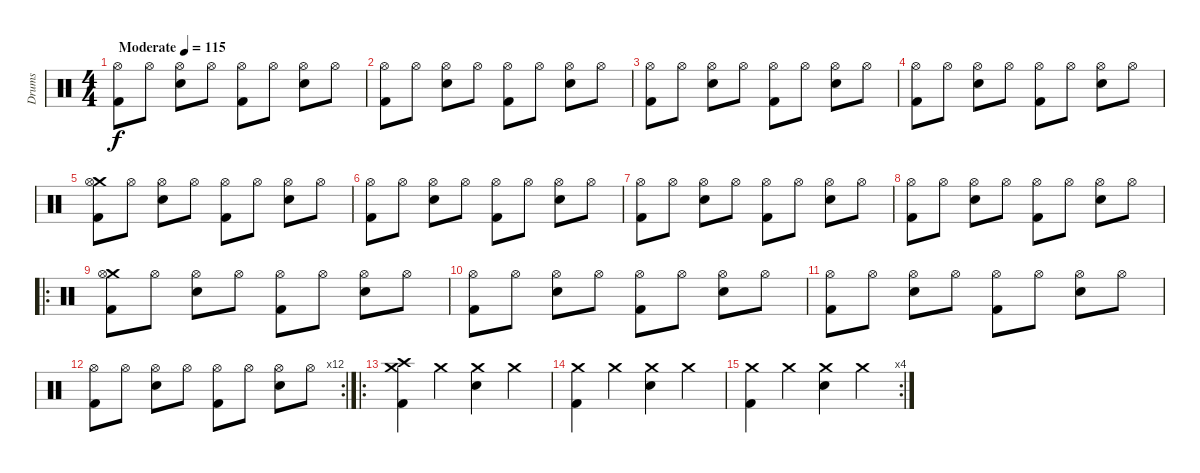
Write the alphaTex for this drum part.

\track ("Drums" "Drums") {instrument percussion}
\staff {score}
\articulation defaults
\ts (4 4)
\tempo (115 "Moderate")
\clef neutral
\ks c
("Hi-Hat (open)" "Kick (hit) 2").8{dy f} "Hi-Hat (open)".8 ("Hi-Hat (open)" "Snare (hit) 2").8 "Hi-Hat (open)".8 ("Hi-Hat (open)" "Kick (hit) 2").8 "Hi-Hat (open)".8 ("Hi-Hat (open)" "Snare (hit) 2").8 "Hi-Hat (open)".8 |
("Hi-Hat (open)" "Kick (hit) 2").8 "Hi-Hat (open)".8 ("Hi-Hat (open)" "Snare (hit) 2").8 "Hi-Hat (open)".8 ("Hi-Hat (open)" "Kick (hit) 2").8 "Hi-Hat (open)".8 ("Hi-Hat (open)" "Snare (hit) 2").8 "Hi-Hat (open)".8 |
("Hi-Hat (open)" "Kick (hit) 2").8 "Hi-Hat (open)".8 ("Hi-Hat (open)" "Snare (hit) 2").8 "Hi-Hat (open)".8 ("Hi-Hat (open)" "Kick (hit) 2").8 "Hi-Hat (open)".8 ("Hi-Hat (open)" "Snare (hit) 2").8 "Hi-Hat (open)".8 |
("Hi-Hat (open)" "Kick (hit) 2").8 "Hi-Hat (open)".8 ("Hi-Hat (open)" "Snare (hit) 2").8 "Hi-Hat (open)".8 ("Hi-Hat (open)" "Kick (hit) 2").8 "Hi-Hat (open)".8 ("Hi-Hat (open)" "Snare (hit) 2").8 "Hi-Hat (open)".8 |
("Crash medium (hit)" "Hi-Hat (open)" "Kick (hit) 2").8 "Hi-Hat (open)".8 ("Hi-Hat (open)" "Snare (hit) 2").8 "Hi-Hat (open)".8 ("Hi-Hat (open)" "Kick (hit) 2").8 "Hi-Hat (open)".8 ("Hi-Hat (open)" "Snare (hit) 2").8 "Hi-Hat (open)".8 |
("Hi-Hat (open)" "Kick (hit) 2").8 "Hi-Hat (open)".8 ("Hi-Hat (open)" "Snare (hit) 2").8 "Hi-Hat (open)".8 ("Hi-Hat (open)" "Kick (hit) 2").8 "Hi-Hat (open)".8 ("Hi-Hat (open)" "Snare (hit) 2").8 "Hi-Hat (open)".8 |
("Hi-Hat (open)" "Kick (hit) 2").8 "Hi-Hat (open)".8 ("Hi-Hat (open)" "Snare (hit) 2").8 "Hi-Hat (open)".8 ("Hi-Hat (open)" "Kick (hit) 2").8 "Hi-Hat (open)".8 ("Hi-Hat (open)" "Snare (hit) 2").8 "Hi-Hat (open)".8 |
("Hi-Hat (open)" "Kick (hit) 2").8 "Hi-Hat (open)".8 ("Hi-Hat (open)" "Snare (hit) 2").8 "Hi-Hat (open)".8 ("Hi-Hat (open)" "Kick (hit) 2").8 "Hi-Hat (open)".8 ("Hi-Hat (open)" "Snare (hit) 2").8 "Hi-Hat (open)".8 |
\ro
("Crash medium (hit)" "Hi-Hat (open)" "Kick (hit) 2").8 "Hi-Hat (open)".8 ("Hi-Hat (open)" "Snare (hit) 2").8 "Hi-Hat (open)".8 ("Hi-Hat (open)" "Kick (hit) 2").8 "Hi-Hat (open)".8 ("Hi-Hat (open)" "Snare (hit) 2").8 "Hi-Hat (open)".8 |
("Hi-Hat (open)" "Kick (hit) 2").8 "Hi-Hat (open)".8 ("Hi-Hat (open)" "Snare (hit) 2").8 "Hi-Hat (open)".8 ("Hi-Hat (open)" "Kick (hit) 2").8 "Hi-Hat (open)".8 ("Hi-Hat (open)" "Snare (hit) 2").8 "Hi-Hat (open)".8 |
("Hi-Hat (open)" "Kick (hit) 2").8 "Hi-Hat (open)".8 ("Hi-Hat (open)" "Snare (hit) 2").8 "Hi-Hat (open)".8 ("Hi-Hat (open)" "Kick (hit) 2").8 "Hi-Hat (open)".8 ("Hi-Hat (open)" "Snare (hit) 2").8 "Hi-Hat (open)".8 |
\rc 12
("Hi-Hat (open)" "Kick (hit) 2").8 "Hi-Hat (open)".8 ("Hi-Hat (open)" "Snare (hit) 2").8 "Hi-Hat (open)".8 ("Hi-Hat (open)" "Kick (hit) 2").8 "Hi-Hat (open)".8 ("Hi-Hat (open)" "Snare (hit) 2").8 "Hi-Hat (open)".8 |
\ro
("Crash medium (hit)" "Crash high (hit)" "Kick (hit) 2").4 "Crash medium (hit)".4 ("Crash medium (hit)" "Snare (hit) 2").4 "Crash medium (hit)".4 |
("Crash medium (hit)" "Kick (hit) 2").4 "Crash medium (hit)".4 ("Crash medium (hit)" "Snare (hit) 2").4 "Crash medium (hit)".4 |
\rc 4
("Crash medium (hit)" "Kick (hit) 2").4 "Crash medium (hit)".4 ("Crash medium (hit)" "Snare (hit) 2").4 "Crash medium (hit)".4
